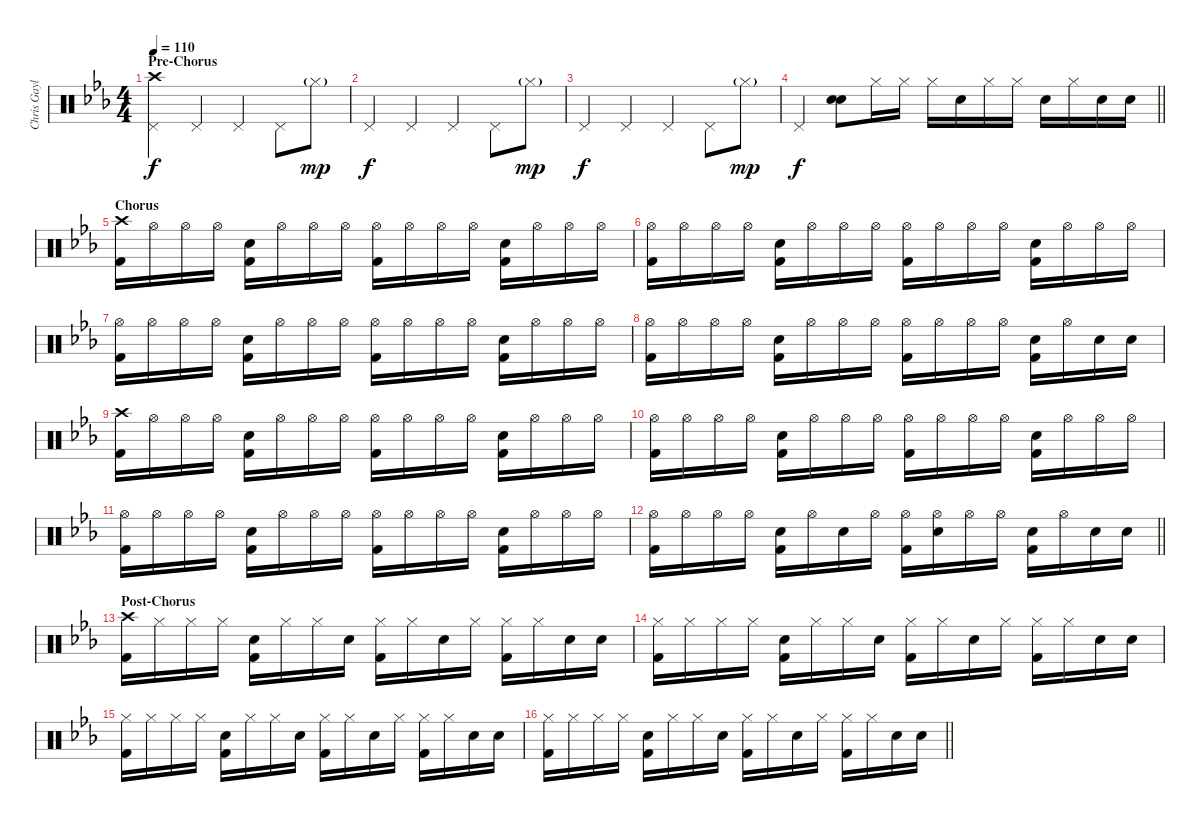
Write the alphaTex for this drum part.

\track ("Chris Gaylor (Percussion)" "Chris Gayl") {instrument percussion}
\staff {score}
\articulation defaults
\ts (4 4)
\section ("" "Pre-Chorus")
\tempo 110
\clef neutral
\ks eb
("Crash high (hit)" "Pedal Hi-Hat (hit)").4{dy f} "Pedal Hi-Hat (hit)".4 "Pedal Hi-Hat (hit)".4 "Pedal Hi-Hat (hit)".8 "Hi-Hat (closed)"{g}.8{dy mp} |
"Pedal Hi-Hat (hit)".4{dy f} "Pedal Hi-Hat (hit)".4 "Pedal Hi-Hat (hit)".4 "Pedal Hi-Hat (hit)".8 "Hi-Hat (closed)"{g}.8{dy mp} |
"Pedal Hi-Hat (hit)".4{dy f} "Pedal Hi-Hat (hit)".4 "Pedal Hi-Hat (hit)".4 "Pedal Hi-Hat (hit)".8 "Hi-Hat (closed)"{g}.8{dy mp} |
\barLineRight lightlight "Pedal Hi-Hat (hit)".4{dy f}
("Electric Snare (hit)" "Electric Snare (hit)").8 "Hi-Hat (closed)".16 "Hi-Hat (closed)".16 "Hi-Hat (closed)".16 "Electric Snare (hit)".16 "Hi-Hat (closed)".16 "Hi-Hat (closed)".16 "Electric Snare (hit)".16 "Hi-Hat (closed)".16 "Electric Snare (hit)".16 "Electric Snare (hit)".16 |
\section ("" "Chorus")
("Crash high (hit)" "Kick (hit) 2").16 "Hi-Hat (open)".16 "Hi-Hat (open)".16 "Hi-Hat (open)".16 ("Electric Snare (hit)" "Kick (hit) 2").16 "Hi-Hat (open)".16 "Hi-Hat (open)".16 "Hi-Hat (open)".16 ("Hi-Hat (open)" "Kick (hit) 2").16 "Hi-Hat (open)".16 "Hi-Hat (open)".16 "Hi-Hat (open)".16 ("Electric Snare (hit)" "Kick (hit) 2").16 "Hi-Hat (open)".16 "Hi-Hat (open)".16 "Hi-Hat (open)".16 |
("Hi-Hat (open)" "Kick (hit) 2").16 "Hi-Hat (open)".16 "Hi-Hat (open)".16 "Hi-Hat (open)".16 ("Electric Snare (hit)" "Kick (hit) 2").16 "Hi-Hat (open)".16 "Hi-Hat (open)".16 "Hi-Hat (open)".16 ("Hi-Hat (open)" "Kick (hit) 2").16 "Hi-Hat (open)".16 "Hi-Hat (open)".16 "Hi-Hat (open)".16 ("Electric Snare (hit)" "Kick (hit) 2").16 "Hi-Hat (open)".16 "Hi-Hat (open)".16 "Hi-Hat (open)".16 |
("Hi-Hat (open)" "Kick (hit) 2").16 "Hi-Hat (open)".16 "Hi-Hat (open)".16 "Hi-Hat (open)".16 ("Electric Snare (hit)" "Kick (hit) 2").16 "Hi-Hat (open)".16 "Hi-Hat (open)".16 "Hi-Hat (open)".16 ("Hi-Hat (open)" "Kick (hit) 2").16 "Hi-Hat (open)".16 "Hi-Hat (open)".16 "Hi-Hat (open)".16 ("Electric Snare (hit)" "Kick (hit) 2").16 "Hi-Hat (open)".16 "Hi-Hat (open)".16 "Hi-Hat (open)".16 |
("Hi-Hat (open)" "Kick (hit) 2").16 "Hi-Hat (open)".16 "Hi-Hat (open)".16 "Hi-Hat (open)".16 ("Electric Snare (hit)" "Kick (hit) 2").16 "Hi-Hat (open)".16 "Hi-Hat (open)".16 "Hi-Hat (open)".16 ("Hi-Hat (open)" "Kick (hit) 2").16 "Hi-Hat (open)".16 "Hi-Hat (open)".16 "Hi-Hat (open)".16 ("Electric Snare (hit)" "Kick (hit) 2").16 "Hi-Hat (open)".16 "Electric Snare (hit)".16 "Electric Snare (hit)".16 |
("Crash high (hit)" "Kick (hit) 2").16 "Hi-Hat (open)".16 "Hi-Hat (open)".16 "Hi-Hat (open)".16 ("Electric Snare (hit)" "Kick (hit) 2").16 "Hi-Hat (open)".16 "Hi-Hat (open)".16 "Hi-Hat (open)".16 ("Hi-Hat (open)" "Kick (hit) 2").16 "Hi-Hat (open)".16 "Hi-Hat (open)".16 "Hi-Hat (open)".16 ("Electric Snare (hit)" "Kick (hit) 2").16 "Hi-Hat (open)".16 "Hi-Hat (open)".16 "Hi-Hat (open)".16 |
("Hi-Hat (open)" "Kick (hit) 2").16 "Hi-Hat (open)".16 "Hi-Hat (open)".16 "Hi-Hat (open)".16 ("Electric Snare (hit)" "Kick (hit) 2").16 "Hi-Hat (open)".16 "Hi-Hat (open)".16 "Hi-Hat (open)".16 ("Hi-Hat (open)" "Kick (hit) 2").16 "Hi-Hat (open)".16 "Hi-Hat (open)".16 "Hi-Hat (open)".16 ("Electric Snare (hit)" "Kick (hit) 2").16 "Hi-Hat (open)".16 "Hi-Hat (open)".16 "Hi-Hat (open)".16 |
("Hi-Hat (open)" "Kick (hit) 2").16 "Hi-Hat (open)".16 "Hi-Hat (open)".16 "Hi-Hat (open)".16 ("Electric Snare (hit)" "Kick (hit) 2").16 "Hi-Hat (open)".16 "Hi-Hat (open)".16 "Hi-Hat (open)".16 ("Hi-Hat (open)" "Kick (hit) 2").16 "Hi-Hat (open)".16 "Hi-Hat (open)".16 "Hi-Hat (open)".16 ("Electric Snare (hit)" "Kick (hit) 2").16 "Hi-Hat (open)".16 "Hi-Hat (open)".16 "Hi-Hat (open)".16 |
\barLineRight lightlight
("Hi-Hat (open)" "Kick (hit) 2").16 "Hi-Hat (open)".16 "Hi-Hat (open)".16 "Hi-Hat (open)".16 ("Electric Snare (hit)" "Kick (hit) 2").16 "Hi-Hat (open)".16 "Electric Snare (hit)".16 "Hi-Hat (open)".16 ("Hi-Hat (open)" "Kick (hit) 2").16 ("Hi-Hat (open)" "Electric Snare (hit)").16 "Hi-Hat (open)".16 "Hi-Hat (open)".16 ("Electric Snare (hit)" "Kick (hit) 2").16 "Hi-Hat (open)".16 "Electric Snare (hit)".16 "Electric Snare (hit)".16 |
\section ("" "Post-Chorus")
("Crash high (hit)" "Kick (hit) 2").16 "Hi-Hat (closed)".16 "Hi-Hat (closed)".16 "Hi-Hat (closed)".16 ("Electric Snare (hit)" "Kick (hit) 2").16 "Hi-Hat (closed)".16 "Hi-Hat (closed)".16 "Electric Snare (hit)".16 ("Hi-Hat (closed)" "Kick (hit) 2").16 "Hi-Hat (closed)".16 "Electric Snare (hit)".16 "Hi-Hat (closed)".16 ("Hi-Hat (closed)" "Kick (hit) 2").16 "Hi-Hat (closed)".16 "Electric Snare (hit)".16 "Electric Snare (hit)".16 |
("Hi-Hat (closed)" "Kick (hit) 2").16 "Hi-Hat (closed)".16 "Hi-Hat (closed)".16 "Hi-Hat (closed)".16 ("Electric Snare (hit)" "Kick (hit) 2").16 "Hi-Hat (closed)".16 "Hi-Hat (closed)".16 "Electric Snare (hit)".16 ("Hi-Hat (closed)" "Kick (hit) 2").16 "Hi-Hat (closed)".16 "Electric Snare (hit)".16 "Hi-Hat (closed)".16 ("Hi-Hat (closed)" "Kick (hit) 2").16 "Hi-Hat (closed)".16 "Electric Snare (hit)".16 "Electric Snare (hit)".16 |
("Hi-Hat (closed)" "Kick (hit) 2").16 "Hi-Hat (closed)".16 "Hi-Hat (closed)".16 "Hi-Hat (closed)".16 ("Electric Snare (hit)" "Kick (hit) 2").16 "Hi-Hat (closed)".16 "Hi-Hat (closed)".16 "Electric Snare (hit)".16 ("Hi-Hat (closed)" "Kick (hit) 2").16 "Hi-Hat (closed)".16 "Electric Snare (hit)".16 "Hi-Hat (closed)".16 ("Hi-Hat (closed)" "Kick (hit) 2").16 "Hi-Hat (closed)".16 "Electric Snare (hit)".16 "Electric Snare (hit)".16 |
\barLineRight lightlight
("Hi-Hat (closed)" "Kick (hit) 2").16 "Hi-Hat (closed)".16 "Hi-Hat (closed)".16 "Hi-Hat (closed)".16 ("Electric Snare (hit)" "Kick (hit) 2").16 "Hi-Hat (closed)".16 "Hi-Hat (closed)".16 "Electric Snare (hit)".16 ("Hi-Hat (closed)" "Kick (hit) 2").16 "Hi-Hat (closed)".16 "Electric Snare (hit)".16 "Hi-Hat (closed)".16 ("Hi-Hat (closed)" "Kick (hit) 2").16 "Hi-Hat (closed)".16 "Electric Snare (hit)".16 "Electric Snare (hit)".16
